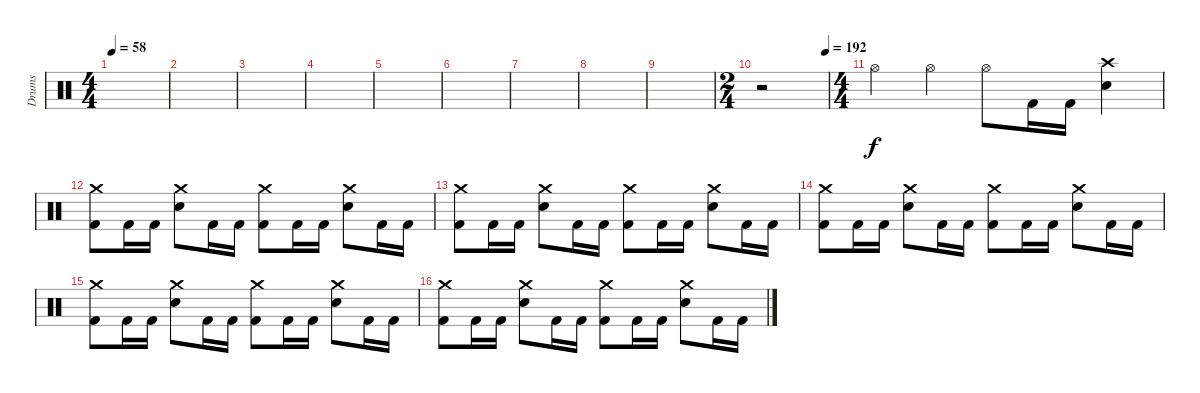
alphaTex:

\track ("Drums" "Drums") {instrument percussion}
\staff {score}
\articulation defaults
\ts (4 4)
\tempo 58
\clef neutral
\ks c
|
|
|
|
|
|
|
|
|
\ts (2 4)
\tempo (192 0.96875)
r.2 |
\ts (4 4)
"Hi-Hat (open)".4 "Hi-Hat (open)".4 "Hi-Hat (open)".8 "Kick (hit) 2".16 "Kick (hit) 2".16 ("Crash high (hit)" "Electric Snare (hit)").4 |
("Crash medium (hit)" "Kick (hit) 2").8 "Kick (hit) 2".16 "Kick (hit) 2".16 ("Crash medium (hit)" "Electric Snare (hit)").8 "Kick (hit) 2".16 "Kick (hit) 2".16 ("Crash medium (hit)" "Kick (hit) 2").8 "Kick (hit) 2".16 "Kick (hit) 2".16 ("Crash medium (hit)" "Electric Snare (hit)").8 "Kick (hit) 2".16 "Kick (hit) 2".16 |
("Crash medium (hit)" "Kick (hit) 2").8 "Kick (hit) 2".16 "Kick (hit) 2".16 ("Crash medium (hit)" "Electric Snare (hit)").8 "Kick (hit) 2".16 "Kick (hit) 2".16 ("Crash medium (hit)" "Kick (hit) 2").8 "Kick (hit) 2".16 "Kick (hit) 2".16 ("Crash medium (hit)" "Electric Snare (hit)").8 "Kick (hit) 2".16 "Kick (hit) 2".16 |
("Crash medium (hit)" "Kick (hit) 2").8 "Kick (hit) 2".16 "Kick (hit) 2".16 ("Crash medium (hit)" "Electric Snare (hit)").8 "Kick (hit) 2".16 "Kick (hit) 2".16 ("Crash medium (hit)" "Kick (hit) 2").8 "Kick (hit) 2".16 "Kick (hit) 2".16 ("Crash medium (hit)" "Electric Snare (hit)").8 "Kick (hit) 2".16 "Kick (hit) 2".16 |
("Crash medium (hit)" "Kick (hit) 2").8 "Kick (hit) 2".16 "Kick (hit) 2".16 ("Crash medium (hit)" "Electric Snare (hit)").8 "Kick (hit) 2".16 "Kick (hit) 2".16 ("Crash medium (hit)" "Kick (hit) 2").8 "Kick (hit) 2".16 "Kick (hit) 2".16 ("Crash medium (hit)" "Electric Snare (hit)").8 "Kick (hit) 2".16 "Kick (hit) 2".16 |
("Crash medium (hit)" "Kick (hit) 2").8 "Kick (hit) 2".16 "Kick (hit) 2".16 ("Crash medium (hit)" "Electric Snare (hit)").8 "Kick (hit) 2".16 "Kick (hit) 2".16 ("Crash medium (hit)" "Kick (hit) 2").8 "Kick (hit) 2".16 "Kick (hit) 2".16 ("Crash medium (hit)" "Electric Snare (hit)").8 "Kick (hit) 2".16 "Kick (hit) 2".16
